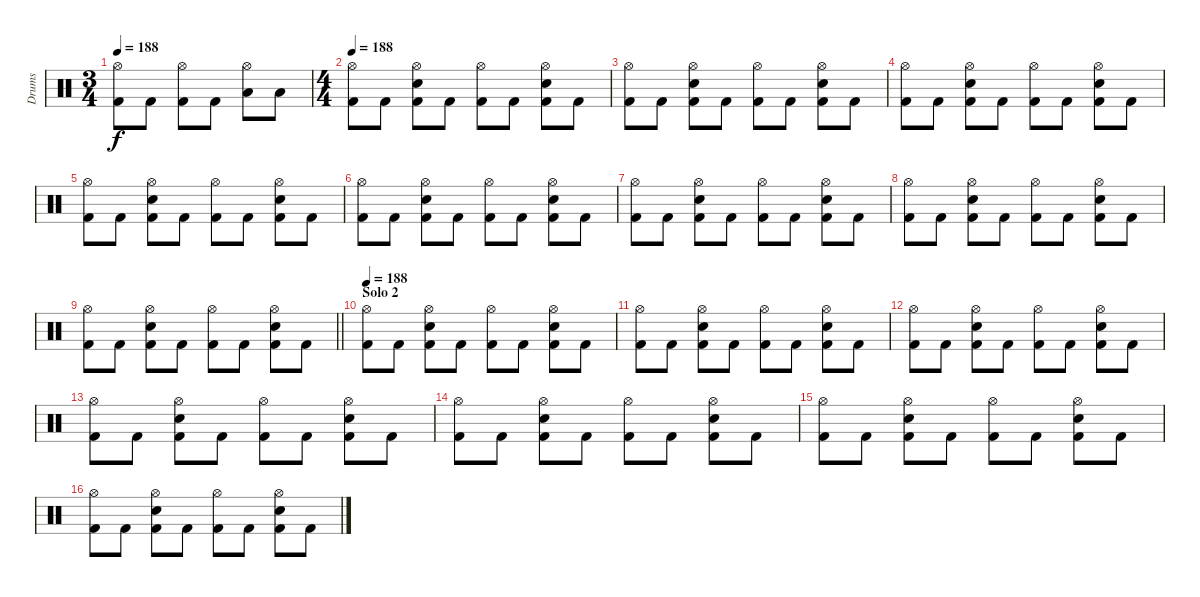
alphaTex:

\track ("Drums" "Drums") {instrument percussion}
\staff {score}
\articulation defaults
\ts (3 4)
\tempo 188
\clef neutral
\ks c
("Hi-Hat (open)" "Kick (hit) 2").8{dy f} "Kick (hit) 2".8 ("Hi-Hat (open)" "Kick (hit) 2").8 "Kick (hit) 2".8 ("Hi-Hat (open)" "Low Floor Tom (hit)").8 "Low Floor Tom (hit)".8 |
\ts (4 4)
\tempo 188
("Hi-Hat (open)" "Kick (hit) 2").8 "Kick (hit) 2".8 ("Electric Snare (hit)" "Hi-Hat (open)" "Kick (hit) 2").8 "Kick (hit) 2".8 ("Hi-Hat (open)" "Kick (hit) 2").8 "Kick (hit) 2".8 ("Electric Snare (hit)" "Hi-Hat (open)" "Kick (hit) 2").8 "Kick (hit) 2".8 |
("Hi-Hat (open)" "Kick (hit) 2").8 "Kick (hit) 2".8 ("Electric Snare (hit)" "Hi-Hat (open)" "Kick (hit) 2").8 "Kick (hit) 2".8 ("Hi-Hat (open)" "Kick (hit) 2").8 "Kick (hit) 2".8 ("Electric Snare (hit)" "Hi-Hat (open)" "Kick (hit) 2").8 "Kick (hit) 2".8 |
("Hi-Hat (open)" "Kick (hit) 2").8 "Kick (hit) 2".8 ("Electric Snare (hit)" "Hi-Hat (open)" "Kick (hit) 2").8 "Kick (hit) 2".8 ("Hi-Hat (open)" "Kick (hit) 2").8 "Kick (hit) 2".8 ("Electric Snare (hit)" "Hi-Hat (open)" "Kick (hit) 2").8 "Kick (hit) 2".8 |
("Hi-Hat (open)" "Kick (hit) 2").8 "Kick (hit) 2".8 ("Electric Snare (hit)" "Hi-Hat (open)" "Kick (hit) 2").8 "Kick (hit) 2".8 ("Hi-Hat (open)" "Kick (hit) 2").8 "Kick (hit) 2".8 ("Electric Snare (hit)" "Hi-Hat (open)" "Kick (hit) 2").8 "Kick (hit) 2".8 |
("Hi-Hat (open)" "Kick (hit) 2").8 "Kick (hit) 2".8 ("Electric Snare (hit)" "Hi-Hat (open)" "Kick (hit) 2").8 "Kick (hit) 2".8 ("Hi-Hat (open)" "Kick (hit) 2").8 "Kick (hit) 2".8 ("Electric Snare (hit)" "Hi-Hat (open)" "Kick (hit) 2").8 "Kick (hit) 2".8 |
("Hi-Hat (open)" "Kick (hit) 2").8 "Kick (hit) 2".8 ("Electric Snare (hit)" "Hi-Hat (open)" "Kick (hit) 2").8 "Kick (hit) 2".8 ("Hi-Hat (open)" "Kick (hit) 2").8 "Kick (hit) 2".8 ("Electric Snare (hit)" "Hi-Hat (open)" "Kick (hit) 2").8 "Kick (hit) 2".8 |
("Hi-Hat (open)" "Kick (hit) 2").8 "Kick (hit) 2".8 ("Electric Snare (hit)" "Hi-Hat (open)" "Kick (hit) 2").8 "Kick (hit) 2".8 ("Hi-Hat (open)" "Kick (hit) 2").8 "Kick (hit) 2".8 ("Electric Snare (hit)" "Hi-Hat (open)" "Kick (hit) 2").8 "Kick (hit) 2".8 |
\barLineRight lightlight
("Hi-Hat (open)" "Kick (hit) 2").8 "Kick (hit) 2".8 ("Electric Snare (hit)" "Hi-Hat (open)" "Kick (hit) 2").8 "Kick (hit) 2".8 ("Hi-Hat (open)" "Kick (hit) 2").8 "Kick (hit) 2".8 ("Electric Snare (hit)" "Hi-Hat (open)" "Kick (hit) 2").8 "Kick (hit) 2".8 |
\section ("" "Solo 2")
\tempo 188
("Hi-Hat (open)" "Kick (hit) 2").8 "Kick (hit) 2".8 ("Electric Snare (hit)" "Hi-Hat (open)" "Kick (hit) 2").8 "Kick (hit) 2".8 ("Hi-Hat (open)" "Kick (hit) 2").8 "Kick (hit) 2".8 ("Electric Snare (hit)" "Hi-Hat (open)" "Kick (hit) 2").8 "Kick (hit) 2".8 |
("Hi-Hat (open)" "Kick (hit) 2").8 "Kick (hit) 2".8 ("Electric Snare (hit)" "Hi-Hat (open)" "Kick (hit) 2").8 "Kick (hit) 2".8 ("Hi-Hat (open)" "Kick (hit) 2").8 "Kick (hit) 2".8 ("Electric Snare (hit)" "Hi-Hat (open)" "Kick (hit) 2").8 "Kick (hit) 2".8 |
("Hi-Hat (open)" "Kick (hit) 2").8 "Kick (hit) 2".8 ("Electric Snare (hit)" "Hi-Hat (open)" "Kick (hit) 2").8 "Kick (hit) 2".8 ("Hi-Hat (open)" "Kick (hit) 2").8 "Kick (hit) 2".8 ("Electric Snare (hit)" "Hi-Hat (open)" "Kick (hit) 2").8 "Kick (hit) 2".8 |
("Hi-Hat (open)" "Kick (hit) 2").8 "Kick (hit) 2".8 ("Electric Snare (hit)" "Hi-Hat (open)" "Kick (hit) 2").8 "Kick (hit) 2".8 ("Hi-Hat (open)" "Kick (hit) 2").8 "Kick (hit) 2".8 ("Electric Snare (hit)" "Hi-Hat (open)" "Kick (hit) 2").8 "Kick (hit) 2".8 |
("Hi-Hat (open)" "Kick (hit) 2").8 "Kick (hit) 2".8 ("Electric Snare (hit)" "Hi-Hat (open)" "Kick (hit) 2").8 "Kick (hit) 2".8 ("Hi-Hat (open)" "Kick (hit) 2").8 "Kick (hit) 2".8 ("Electric Snare (hit)" "Hi-Hat (open)" "Kick (hit) 2").8 "Kick (hit) 2".8 |
("Hi-Hat (open)" "Kick (hit) 2").8 "Kick (hit) 2".8 ("Electric Snare (hit)" "Hi-Hat (open)" "Kick (hit) 2").8 "Kick (hit) 2".8 ("Hi-Hat (open)" "Kick (hit) 2").8 "Kick (hit) 2".8 ("Electric Snare (hit)" "Hi-Hat (open)" "Kick (hit) 2").8 "Kick (hit) 2".8 |
("Hi-Hat (open)" "Kick (hit) 2").8 "Kick (hit) 2".8 ("Electric Snare (hit)" "Hi-Hat (open)" "Kick (hit) 2").8 "Kick (hit) 2".8 ("Hi-Hat (open)" "Kick (hit) 2").8 "Kick (hit) 2".8 ("Electric Snare (hit)" "Hi-Hat (open)" "Kick (hit) 2").8 "Kick (hit) 2".8
